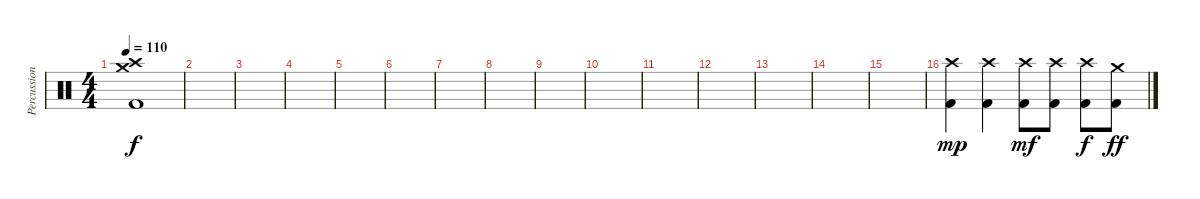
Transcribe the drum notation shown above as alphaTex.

\track ("Percussion" "Percussion") {instrument percussion}
\staff {score}
\articulation defaults
\ts (4 4)
\tempo 110
\clef neutral
\ks c
("Crash high (hit)" "Crash medium (hit)" "Kick (hit) 2").1{dy f} |
|
|
|
|
|
|
|
|
|
|
|
|
|
|
("Crash high (hit)" "Kick (hit) 2").4{dy mp} ("Crash high (hit)" "Kick (hit) 2").4 ("Crash high (hit)" "Kick (hit) 2").8{dy mf} ("Crash high (hit)" "Kick (hit) 2").8 ("Crash high (hit)" "Kick (hit) 2").8{dy f} ("Crash medium (hit)" "Kick (hit) 2").8{dy ff}
